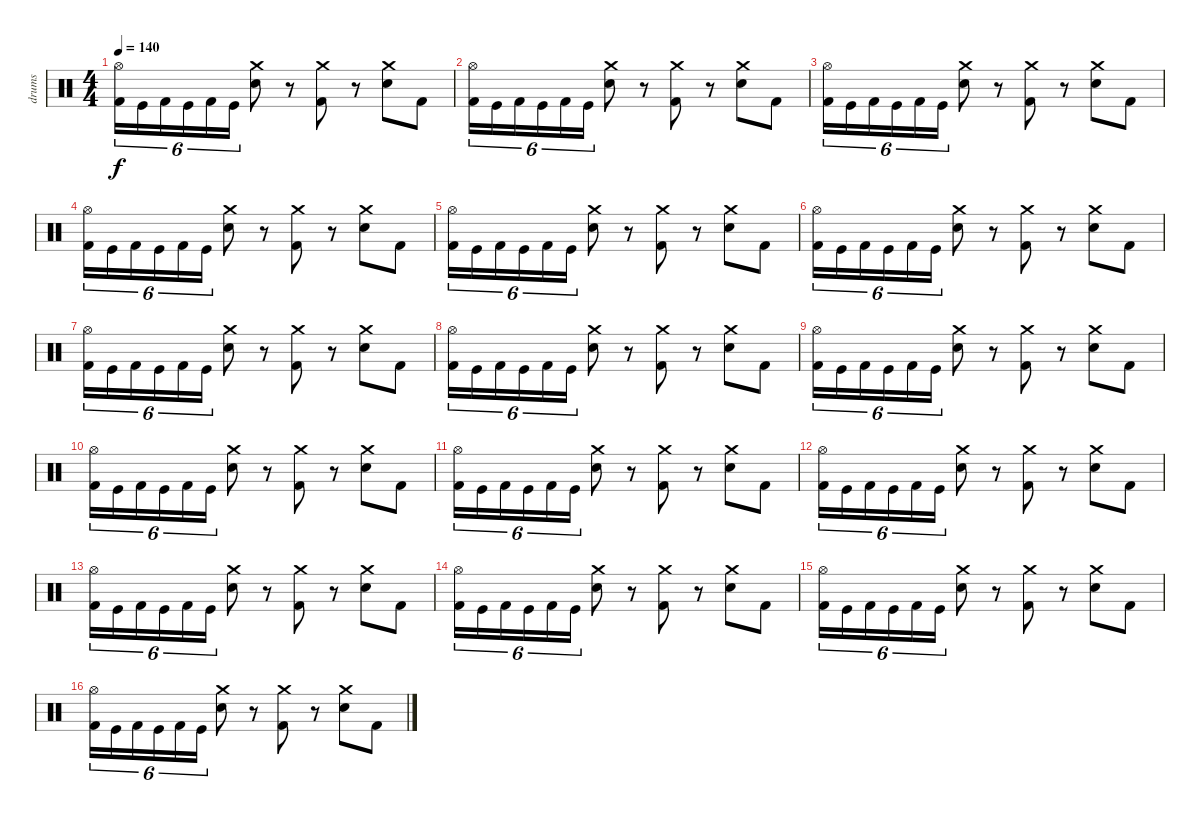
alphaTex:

\track ("drums" "drums") {instrument percussion}
\staff {score}
\articulation defaults
\ts (4 4)
\tempo 140
\clef neutral
\ks c
("Hi-Hat (open)" "Kick (hit) 2").16{tu (6 4) dy f} "Kick (hit)".16{tu (6 4)} "Kick (hit) 2".16{tu (6 4)} "Kick (hit)".16{tu (6 4)} "Kick (hit) 2".16{tu (6 4)} "Kick (hit)".16{tu (6 4)} ("Crash medium (hit)" "Snare (hit) 2").8 r.8 ("Crash medium (hit)" "Kick (hit) 2").8 r.8 ("Crash medium (hit)" "Snare (hit) 2").8 "Kick (hit) 2".8 |
("Hi-Hat (open)" "Kick (hit) 2").16{tu (6 4)} "Kick (hit)".16{tu (6 4)} "Kick (hit) 2".16{tu (6 4)} "Kick (hit)".16{tu (6 4)} "Kick (hit) 2".16{tu (6 4)} "Kick (hit)".16{tu (6 4)} ("Crash medium (hit)" "Snare (hit) 2").8 r.8 ("Crash medium (hit)" "Kick (hit) 2").8 r.8 ("Crash medium (hit)" "Snare (hit) 2").8 "Kick (hit) 2".8 |
("Hi-Hat (open)" "Kick (hit) 2").16{tu (6 4)} "Kick (hit)".16{tu (6 4)} "Kick (hit) 2".16{tu (6 4)} "Kick (hit)".16{tu (6 4)} "Kick (hit) 2".16{tu (6 4)} "Kick (hit)".16{tu (6 4)} ("Crash medium (hit)" "Snare (hit) 2").8 r.8 ("Crash medium (hit)" "Kick (hit) 2").8 r.8 ("Crash medium (hit)" "Snare (hit) 2").8 "Kick (hit) 2".8 |
("Hi-Hat (open)" "Kick (hit) 2").16{tu (6 4)} "Kick (hit)".16{tu (6 4)} "Kick (hit) 2".16{tu (6 4)} "Kick (hit)".16{tu (6 4)} "Kick (hit) 2".16{tu (6 4)} "Kick (hit)".16{tu (6 4)} ("Crash medium (hit)" "Snare (hit) 2").8 r.8 ("Crash medium (hit)" "Kick (hit) 2").8 r.8 ("Crash medium (hit)" "Snare (hit) 2").8 "Kick (hit) 2".8 |
("Hi-Hat (open)" "Kick (hit) 2").16{tu (6 4)} "Kick (hit)".16{tu (6 4)} "Kick (hit) 2".16{tu (6 4)} "Kick (hit)".16{tu (6 4)} "Kick (hit) 2".16{tu (6 4)} "Kick (hit)".16{tu (6 4)} ("Crash medium (hit)" "Snare (hit) 2").8 r.8 ("Crash medium (hit)" "Kick (hit) 2").8 r.8 ("Crash medium (hit)" "Snare (hit) 2").8 "Kick (hit) 2".8 |
("Hi-Hat (open)" "Kick (hit) 2").16{tu (6 4)} "Kick (hit)".16{tu (6 4)} "Kick (hit) 2".16{tu (6 4)} "Kick (hit)".16{tu (6 4)} "Kick (hit) 2".16{tu (6 4)} "Kick (hit)".16{tu (6 4)} ("Crash medium (hit)" "Snare (hit) 2").8 r.8 ("Crash medium (hit)" "Kick (hit) 2").8 r.8 ("Crash medium (hit)" "Snare (hit) 2").8 "Kick (hit) 2".8 |
("Hi-Hat (open)" "Kick (hit) 2").16{tu (6 4)} "Kick (hit)".16{tu (6 4)} "Kick (hit) 2".16{tu (6 4)} "Kick (hit)".16{tu (6 4)} "Kick (hit) 2".16{tu (6 4)} "Kick (hit)".16{tu (6 4)} ("Crash medium (hit)" "Snare (hit) 2").8 r.8 ("Crash medium (hit)" "Kick (hit) 2").8 r.8 ("Crash medium (hit)" "Snare (hit) 2").8 "Kick (hit) 2".8 |
("Hi-Hat (open)" "Kick (hit) 2").16{tu (6 4)} "Kick (hit)".16{tu (6 4)} "Kick (hit) 2".16{tu (6 4)} "Kick (hit)".16{tu (6 4)} "Kick (hit) 2".16{tu (6 4)} "Kick (hit)".16{tu (6 4)} ("Crash medium (hit)" "Snare (hit) 2").8 r.8 ("Crash medium (hit)" "Kick (hit) 2").8 r.8 ("Crash medium (hit)" "Snare (hit) 2").8 "Kick (hit) 2".8 |
("Hi-Hat (open)" "Kick (hit) 2").16{tu (6 4)} "Kick (hit)".16{tu (6 4)} "Kick (hit) 2".16{tu (6 4)} "Kick (hit)".16{tu (6 4)} "Kick (hit) 2".16{tu (6 4)} "Kick (hit)".16{tu (6 4)} ("Crash medium (hit)" "Snare (hit) 2").8 r.8 ("Crash medium (hit)" "Kick (hit) 2").8 r.8 ("Crash medium (hit)" "Snare (hit) 2").8 "Kick (hit) 2".8 |
("Hi-Hat (open)" "Kick (hit) 2").16{tu (6 4)} "Kick (hit)".16{tu (6 4)} "Kick (hit) 2".16{tu (6 4)} "Kick (hit)".16{tu (6 4)} "Kick (hit) 2".16{tu (6 4)} "Kick (hit)".16{tu (6 4)} ("Crash medium (hit)" "Snare (hit) 2").8 r.8 ("Crash medium (hit)" "Kick (hit) 2").8 r.8 ("Crash medium (hit)" "Snare (hit) 2").8 "Kick (hit) 2".8 |
("Hi-Hat (open)" "Kick (hit) 2").16{tu (6 4)} "Kick (hit)".16{tu (6 4)} "Kick (hit) 2".16{tu (6 4)} "Kick (hit)".16{tu (6 4)} "Kick (hit) 2".16{tu (6 4)} "Kick (hit)".16{tu (6 4)} ("Crash medium (hit)" "Snare (hit) 2").8 r.8 ("Crash medium (hit)" "Kick (hit) 2").8 r.8 ("Crash medium (hit)" "Snare (hit) 2").8 "Kick (hit) 2".8 |
("Hi-Hat (open)" "Kick (hit) 2").16{tu (6 4)} "Kick (hit)".16{tu (6 4)} "Kick (hit) 2".16{tu (6 4)} "Kick (hit)".16{tu (6 4)} "Kick (hit) 2".16{tu (6 4)} "Kick (hit)".16{tu (6 4)} ("Crash medium (hit)" "Snare (hit) 2").8 r.8 ("Crash medium (hit)" "Kick (hit) 2").8 r.8 ("Crash medium (hit)" "Snare (hit) 2").8 "Kick (hit) 2".8 |
("Hi-Hat (open)" "Kick (hit) 2").16{tu (6 4)} "Kick (hit)".16{tu (6 4)} "Kick (hit) 2".16{tu (6 4)} "Kick (hit)".16{tu (6 4)} "Kick (hit) 2".16{tu (6 4)} "Kick (hit)".16{tu (6 4)} ("Crash medium (hit)" "Snare (hit) 2").8 r.8 ("Crash medium (hit)" "Kick (hit) 2").8 r.8 ("Crash medium (hit)" "Snare (hit) 2").8 "Kick (hit) 2".8 |
("Hi-Hat (open)" "Kick (hit) 2").16{tu (6 4)} "Kick (hit)".16{tu (6 4)} "Kick (hit) 2".16{tu (6 4)} "Kick (hit)".16{tu (6 4)} "Kick (hit) 2".16{tu (6 4)} "Kick (hit)".16{tu (6 4)} ("Crash medium (hit)" "Snare (hit) 2").8 r.8 ("Crash medium (hit)" "Kick (hit) 2").8 r.8 ("Crash medium (hit)" "Snare (hit) 2").8 "Kick (hit) 2".8 |
("Hi-Hat (open)" "Kick (hit) 2").16{tu (6 4)} "Kick (hit)".16{tu (6 4)} "Kick (hit) 2".16{tu (6 4)} "Kick (hit)".16{tu (6 4)} "Kick (hit) 2".16{tu (6 4)} "Kick (hit)".16{tu (6 4)} ("Crash medium (hit)" "Snare (hit) 2").8 r.8 ("Crash medium (hit)" "Kick (hit) 2").8 r.8 ("Crash medium (hit)" "Snare (hit) 2").8 "Kick (hit) 2".8 |
("Hi-Hat (open)" "Kick (hit) 2").16{tu (6 4)} "Kick (hit)".16{tu (6 4)} "Kick (hit) 2".16{tu (6 4)} "Kick (hit)".16{tu (6 4)} "Kick (hit) 2".16{tu (6 4)} "Kick (hit)".16{tu (6 4)} ("Crash medium (hit)" "Snare (hit) 2").8 r.8 ("Crash medium (hit)" "Kick (hit) 2").8 r.8 ("Crash medium (hit)" "Snare (hit) 2").8 "Kick (hit) 2".8
